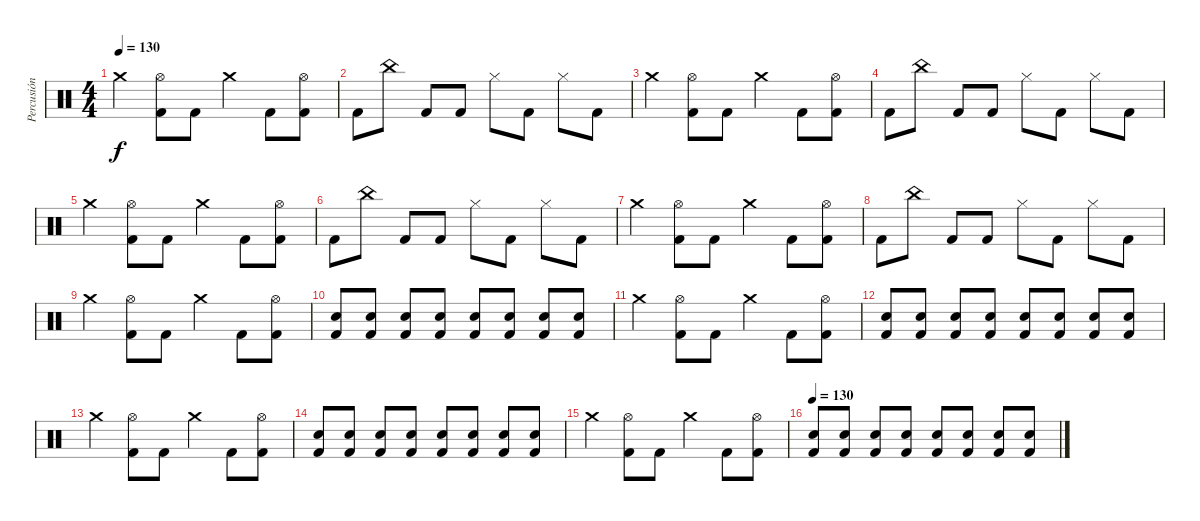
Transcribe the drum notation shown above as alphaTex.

\track ("Percusión" "Percusión") {instrument percussion}
\staff {score}
\articulation defaults
\ts (4 4)
\tempo 130
\clef neutral
\ks c "Crash medium (hit)".4{dy f}
("Hi-Hat (open)" "Kick (hit) 2").8 "Kick (hit) 2".8 "Crash medium (hit)".4 "Kick (hit) 2".8 ("Hi-Hat (open)" "Kick (hit) 2").8 |
"Kick (hit) 2".8 "China (hit)".8 "Kick (hit) 2".8 "Kick (hit) 2".8 "Hi-Hat (closed)".8 "Kick (hit) 2".8 "Hi-Hat (closed)".8 "Kick (hit) 2".8 |
"Crash medium (hit)".4 ("Hi-Hat (open)" "Kick (hit) 2").8 "Kick (hit) 2".8 "Crash medium (hit)".4 "Kick (hit) 2".8 ("Hi-Hat (open)" "Kick (hit) 2").8 |
"Kick (hit) 2".8 "China (hit)".8 "Kick (hit) 2".8 "Kick (hit) 2".8 "Hi-Hat (closed)".8 "Kick (hit) 2".8 "Hi-Hat (closed)".8 "Kick (hit) 2".8 |
"Crash medium (hit)".4 ("Hi-Hat (open)" "Kick (hit) 2").8 "Kick (hit) 2".8 "Crash medium (hit)".4 "Kick (hit) 2".8 ("Hi-Hat (open)" "Kick (hit) 2").8 |
"Kick (hit) 2".8 "China (hit)".8 "Kick (hit) 2".8 "Kick (hit) 2".8 "Hi-Hat (closed)".8 "Kick (hit) 2".8 "Hi-Hat (closed)".8 "Kick (hit) 2".8 |
"Crash medium (hit)".4 ("Hi-Hat (open)" "Kick (hit) 2").8 "Kick (hit) 2".8 "Crash medium (hit)".4 "Kick (hit) 2".8 ("Hi-Hat (open)" "Kick (hit) 2").8 |
"Kick (hit) 2".8 "China (hit)".8 "Kick (hit) 2".8 "Kick (hit) 2".8 "Hi-Hat (closed)".8 "Kick (hit) 2".8 "Hi-Hat (closed)".8 "Kick (hit) 2".8 |
"Crash medium (hit)".4 ("Hi-Hat (open)" "Kick (hit) 2").8 "Kick (hit) 2".8 "Crash medium (hit)".4 "Kick (hit) 2".8 ("Hi-Hat (open)" "Kick (hit) 2").8 |
("Snare (hit) 2" "Kick (hit) 2").8 ("Snare (hit) 2" "Kick (hit) 2").8 ("Snare (hit) 2" "Kick (hit) 2").8 ("Snare (hit) 2" "Kick (hit) 2").8 ("Snare (hit) 2" "Kick (hit) 2").8 ("Snare (hit) 2" "Kick (hit) 2").8 ("Snare (hit) 2" "Kick (hit) 2").8 ("Snare (hit) 2" "Kick (hit) 2").8 |
"Crash medium (hit)".4 ("Hi-Hat (open)" "Kick (hit) 2").8 "Kick (hit) 2".8 "Crash medium (hit)".4 "Kick (hit) 2".8 ("Hi-Hat (open)" "Kick (hit) 2").8 |
("Snare (hit) 2" "Kick (hit) 2").8 ("Snare (hit) 2" "Kick (hit) 2").8 ("Snare (hit) 2" "Kick (hit) 2").8 ("Snare (hit) 2" "Kick (hit) 2").8 ("Snare (hit) 2" "Kick (hit) 2").8 ("Snare (hit) 2" "Kick (hit) 2").8 ("Snare (hit) 2" "Kick (hit) 2").8 ("Snare (hit) 2" "Kick (hit) 2").8 |
"Crash medium (hit)".4 ("Hi-Hat (open)" "Kick (hit) 2").8 "Kick (hit) 2".8 "Crash medium (hit)".4 "Kick (hit) 2".8 ("Hi-Hat (open)" "Kick (hit) 2").8 |
("Snare (hit) 2" "Kick (hit) 2").8 ("Snare (hit) 2" "Kick (hit) 2").8 ("Snare (hit) 2" "Kick (hit) 2").8 ("Snare (hit) 2" "Kick (hit) 2").8 ("Snare (hit) 2" "Kick (hit) 2").8 ("Snare (hit) 2" "Kick (hit) 2").8 ("Snare (hit) 2" "Kick (hit) 2").8 ("Snare (hit) 2" "Kick (hit) 2").8 |
"Crash medium (hit)".4 ("Hi-Hat (open)" "Kick (hit) 2").8 "Kick (hit) 2".8 "Crash medium (hit)".4 "Kick (hit) 2".8 ("Hi-Hat (open)" "Kick (hit) 2").8 |
\tempo 130
("Snare (hit) 2" "Kick (hit) 2").8 ("Snare (hit) 2" "Kick (hit) 2").8 ("Snare (hit) 2" "Kick (hit) 2").8 ("Snare (hit) 2" "Kick (hit) 2").8 ("Snare (hit) 2" "Kick (hit) 2").8 ("Snare (hit) 2" "Kick (hit) 2").8 ("Snare (hit) 2" "Kick (hit) 2").8 ("Snare (hit) 2" "Kick (hit) 2").8
